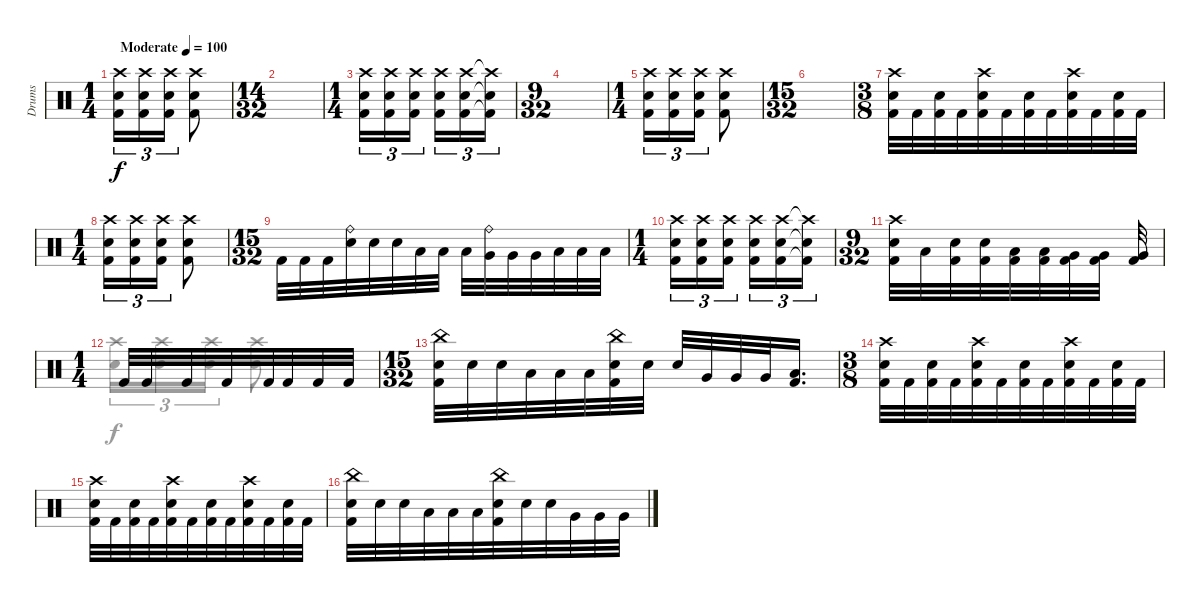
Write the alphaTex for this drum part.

\track ("Drums" "Drums") {instrument percussion}
\staff {score}
\articulation defaults
\voice
\ts (1 4)
\tempo (100 "Moderate")
\clef neutral
\ks c
("Crash high (hit)" "Electric Snare (hit)" "Kick (hit) 2").16{tu (3 2) dy f} ("Crash high (hit)" "Electric Snare (hit)" "Kick (hit) 2").16{tu (3 2)} ("Crash high (hit)" "Electric Snare (hit)" "Kick (hit) 2").16{tu (3 2)} ("Crash high (hit)" "Electric Snare (hit)" "Kick (hit) 2").8 |
\ts (14 32)
|
\ts (1 4)
("Crash high (hit)" "Electric Snare (hit)" "Kick (hit) 2").16{tu (3 2)} ("Crash high (hit)" "Electric Snare (hit)" "Kick (hit) 2").16{tu (3 2)} ("Crash high (hit)" "Electric Snare (hit)" "Kick (hit) 2").16{tu (3 2) beam splitsecondary} ("Crash high (hit)" "Electric Snare (hit)" "Kick (hit) 2").16{tu (3 2)} ("Crash high (hit)" "Electric Snare (hit)" "Kick (hit) 2").16{tu (3 2)} ("Crash high (hit)"{t} "Electric Snare (hit)"{t} "Kick (hit) 2"{t}).16{tu (3 2)} |
\ts (9 32)
|
\ts (1 4)
("Crash high (hit)" "Electric Snare (hit)" "Kick (hit) 2").16{tu (3 2)} ("Crash high (hit)" "Electric Snare (hit)" "Kick (hit) 2").16{tu (3 2)} ("Crash high (hit)" "Electric Snare (hit)" "Kick (hit) 2").16{tu (3 2)} ("Crash high (hit)" "Electric Snare (hit)" "Kick (hit) 2").8 |
\ts (15 32)
|
\ts (3 8)
("Crash high (hit)" "Electric Snare (hit)" "Kick (hit) 2").32 "Kick (hit) 2".32 ("Electric Snare (hit)" "Kick (hit) 2").32 "Kick (hit) 2".32 ("Crash high (hit)" "Electric Snare (hit)" "Kick (hit) 2").32 "Kick (hit) 2".32 ("Electric Snare (hit)" "Kick (hit) 2").32 "Kick (hit) 2".32 ("Crash high (hit)" "Electric Snare (hit)" "Kick (hit) 2").32 "Kick (hit) 2".32 ("Electric Snare (hit)" "Kick (hit) 2").32 "Kick (hit) 2".32 |
\ts (1 4)
("Crash high (hit)" "Electric Snare (hit)" "Kick (hit) 2").16{tu (3 2)} ("Crash high (hit)" "Electric Snare (hit)" "Kick (hit) 2").16{tu (3 2)} ("Crash high (hit)" "Electric Snare (hit)" "Kick (hit) 2").16{tu (3 2)} ("Crash high (hit)" "Electric Snare (hit)" "Kick (hit) 2").8 |
\ts (15 32)
"Kick (hit) 2".32 "Kick (hit) 2".32 "Kick (hit) 2".32 ("Ride (bell)" "Electric Snare (hit)").32 "Electric Snare (hit)".32 "Electric Snare (hit)".32 "Low Tom (hit)".32 "Low Tom (hit)".32 "Low Tom (hit)".32 ("Ride (bell)" "Very Low Tom (hit)").32 "Very Low Tom (hit)".32 "Very Low Tom (hit)".32 "Low Floor Tom (hit)".32 "Low Floor Tom (hit)".32 "Low Floor Tom (hit)".32 |
\ts (1 4)
("Crash high (hit)" "Electric Snare (hit)" "Kick (hit) 2").16{tu (3 2)} ("Crash high (hit)" "Electric Snare (hit)" "Kick (hit) 2").16{tu (3 2)} ("Crash high (hit)" "Electric Snare (hit)" "Kick (hit) 2").16{tu (3 2) beam splitsecondary} ("Crash high (hit)" "Electric Snare (hit)" "Kick (hit) 2").16{tu (3 2)} ("Crash high (hit)" "Electric Snare (hit)" "Kick (hit) 2").16{tu (3 2)} ("Crash high (hit)"{t} "Electric Snare (hit)"{t} "Kick (hit) 2"{t}).16{tu (3 2)} |
\ts (9 32)
("Crash high (hit)" "Electric Snare (hit)" "Kick (hit) 2").32 "Low Tom (hit)".32 ("Electric Snare (hit)" "Kick (hit) 2").32 ("Electric Snare (hit)" "Kick (hit) 2").32 ("Low Tom (hit)" "Kick (hit) 2").32 ("Low Tom (hit)" "Kick (hit) 2").32 ("Very Low Tom (hit)" "Kick (hit) 2").32 ("Very Low Tom (hit)" "Kick (hit) 2").32 ("Very Low Tom (hit)" "Kick (hit) 2").32 |
\ts (1 4)
"Kick (hit) 2".32 "Kick (hit) 2".32 "Kick (hit) 2".32 "Kick (hit) 2".32 "Kick (hit) 2".32 "Kick (hit) 2".32 "Kick (hit) 2".32 "Kick (hit) 2".32 |
\ts (15 32)
("China (hit)" "Electric Snare (hit)" "Kick (hit) 2").32 "Electric Snare (hit)".32 "Electric Snare (hit)".32 "Low Tom (hit)".32 "Low Tom (hit)".32 "Low Tom (hit)".32 ("China (hit)" "Electric Snare (hit)" "Kick (hit) 2").32 "Electric Snare (hit)".32 "Electric Snare (hit)".32 "Very Low Tom (hit)".32 "Very Low Tom (hit)".32 "Very Low Tom (hit)".32 ("Low Floor Tom (hit)" "Kick (hit) 2").16{d} |
\ts (3 8)
("Crash high (hit)" "Electric Snare (hit)" "Kick (hit) 2").32 "Kick (hit) 2".32 ("Electric Snare (hit)" "Kick (hit) 2").32 "Kick (hit) 2".32 ("Crash high (hit)" "Electric Snare (hit)" "Kick (hit) 2").32 "Kick (hit) 2".32 ("Electric Snare (hit)" "Kick (hit) 2").32 "Kick (hit) 2".32 ("Crash high (hit)" "Electric Snare (hit)" "Kick (hit) 2").32 "Kick (hit) 2".32 ("Electric Snare (hit)" "Kick (hit) 2").32 "Kick (hit) 2".32 |
("Crash high (hit)" "Electric Snare (hit)" "Kick (hit) 2").32 "Kick (hit) 2".32 ("Electric Snare (hit)" "Kick (hit) 2").32 "Kick (hit) 2".32 ("Crash high (hit)" "Electric Snare (hit)" "Kick (hit) 2").32 "Kick (hit) 2".32 ("Electric Snare (hit)" "Kick (hit) 2").32 "Kick (hit) 2".32 ("Crash high (hit)" "Electric Snare (hit)" "Kick (hit) 2").32 "Kick (hit) 2".32 ("Electric Snare (hit)" "Kick (hit) 2").32 "Kick (hit) 2".32 |
("China (hit)" "Electric Snare (hit)" "Kick (hit) 2").32 "Electric Snare (hit)".32 "Electric Snare (hit)".32 "Low Tom (hit)".32 "Low Tom (hit)".32 "Low Tom (hit)".32 ("China (hit)" "Electric Snare (hit)" "Kick (hit) 2").32 "Electric Snare (hit)".32 "Electric Snare (hit)".32 "Very Low Tom (hit)".32 "Very Low Tom (hit)".32 "Very Low Tom (hit)".32
\voice
\clef neutral
\ottava regular
\simile none
\ks c
|
|
|
|
|
|
|
|
|
|
|
("Crash high (hit)" "Electric Snare (hit)").16{tu (3 2)} ("Crash high (hit)" "Electric Snare (hit)").16{tu (3 2)} ("Crash high (hit)" "Electric Snare (hit)").16{tu (3 2)} ("Crash high (hit)" "Electric Snare (hit)").8 |
|
|
|
